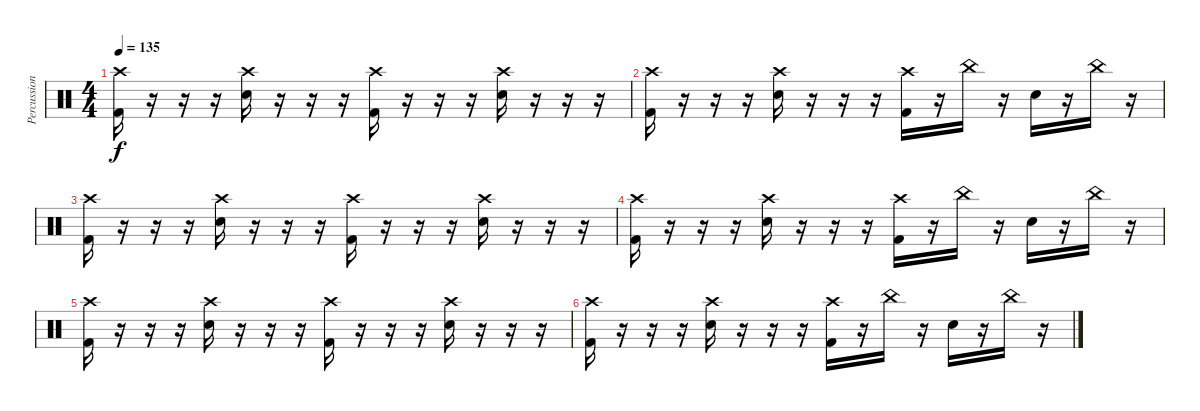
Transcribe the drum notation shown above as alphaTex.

\track ("Percussion" "Percussion") {instrument percussion}
\staff {score}
\articulation defaults
\ts (4 4)
\tempo 135
\clef neutral
\ks c
("Crash high (hit)" "Kick (hit) 2").16{dy f} r.16 r.16 r.16 ("Crash high (hit)" "Electric Snare (hit)").16 r.16 r.16 r.16 ("Crash high (hit)" "Kick (hit) 2").16 r.16 r.16 r.16 ("Crash high (hit)" "Electric Snare (hit)").16 r.16 r.16 r.16 |
("Crash high (hit)" "Kick (hit) 2").16 r.16 r.16 r.16 ("Crash high (hit)" "Electric Snare (hit)").16 r.16 r.16 r.16 ("Crash high (hit)" "Kick (hit) 2").16 r.16 "China (hit)".16 r.16 "Electric Snare (hit)".16 r.16 "China (hit)".16 r.16 |
("Crash high (hit)" "Kick (hit) 2").16 r.16{volume 0} r.16 r.16 ("Crash high (hit)" "Electric Snare (hit)").16 r.16 r.16 r.16 ("Crash high (hit)" "Kick (hit) 2").16 r.16 r.16 r.16 ("Crash high (hit)" "Electric Snare (hit)").16 r.16 r.16 r.16 |
("Crash high (hit)" "Kick (hit) 2").16 r.16 r.16 r.16 ("Crash high (hit)" "Electric Snare (hit)").16 r.16 r.16 r.16 ("Crash high (hit)" "Kick (hit) 2").16 r.16 "China (hit)".16 r.16 "Electric Snare (hit)".16 r.16 "China (hit)".16 r.16 |
("Crash high (hit)" "Kick (hit) 2").16 r.16 r.16 r.16 ("Crash high (hit)" "Electric Snare (hit)").16 r.16 r.16 r.16 ("Crash high (hit)" "Kick (hit) 2").16 r.16 r.16 r.16 ("Crash high (hit)" "Electric Snare (hit)").16 r.16 r.16 r.16 |
("Crash high (hit)" "Kick (hit) 2").16 r.16 r.16 r.16 ("Crash high (hit)" "Electric Snare (hit)").16 r.16 r.16 r.16 ("Crash high (hit)" "Kick (hit) 2").16 r.16 "China (hit)".16 r.16 "Electric Snare (hit)".16 r.16 "China (hit)".16 r.16
